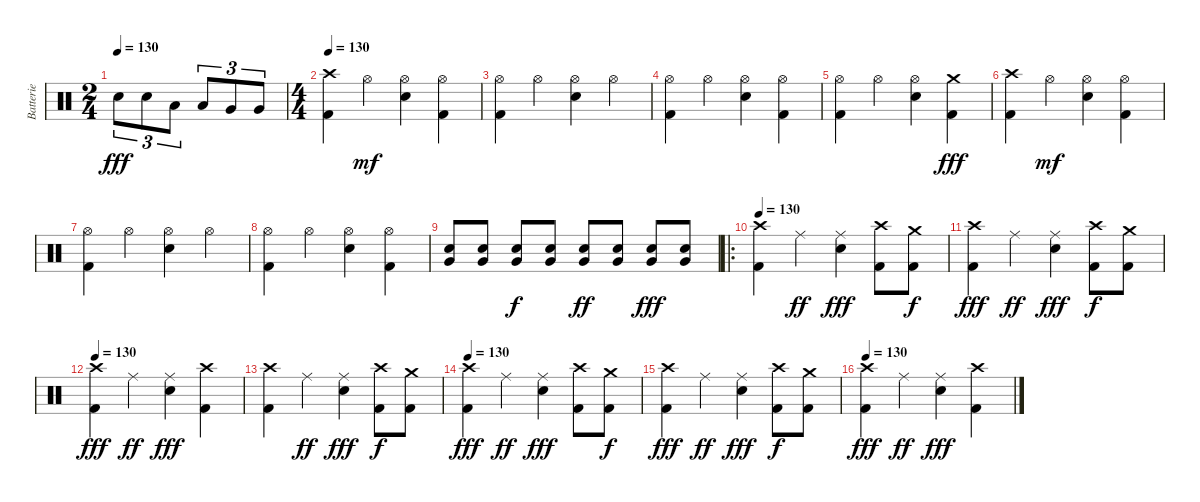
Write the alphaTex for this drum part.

\track ("Batterie" "Batterie") {instrument percussion}
\staff {score}
\articulation defaults
\ts (2 4)
\tempo 130
\clef neutral
\ks c "Snare (hit) 2".8{tu (3 2) dy fff} "Snare (hit) 2".8{tu (3 2)} "Low Tom (hit)".8{tu (3 2)} "Low Tom (hit)".8{tu (3 2)} "Very Low Tom (hit)".8{tu (3 2)} "Very Low Tom (hit)".8{tu (3 2)}
|
\ts (4 4)
\tempo 130
("Crash high (hit)" "Kick (hit) 2").4 "Hi-Hat (open)".4{dy mf} ("Snare (hit) 2" "Hi-Hat (open)").4 ("Kick (hit) 2" "Hi-Hat (open)").4 |
("Kick (hit) 2" "Hi-Hat (open)").4 "Hi-Hat (open)".4 ("Snare (hit) 2" "Hi-Hat (open)").4 "Hi-Hat (open)".4 |
("Kick (hit) 2" "Hi-Hat (open)").4 "Hi-Hat (open)".4 ("Snare (hit) 2" "Hi-Hat (open)").4 ("Kick (hit) 2" "Hi-Hat (open)").4 |
("Kick (hit) 2" "Hi-Hat (open)").4 "Hi-Hat (open)".4 ("Snare (hit) 2" "Hi-Hat (open)").4 ("Crash medium (hit)" "Kick (hit) 2").4{dy fff} |
("Crash high (hit)" "Kick (hit) 2").4 "Hi-Hat (open)".4{dy mf} ("Snare (hit) 2" "Hi-Hat (open)").4 ("Kick (hit) 2" "Hi-Hat (open)").4 |
("Kick (hit) 2" "Hi-Hat (open)").4 "Hi-Hat (open)".4 ("Snare (hit) 2" "Hi-Hat (open)").4 "Hi-Hat (open)".4 |
("Kick (hit) 2" "Hi-Hat (open)").4 "Hi-Hat (open)".4 ("Snare (hit) 2" "Hi-Hat (open)").4 ("Kick (hit) 2" "Hi-Hat (open)").4 |
("Snare (hit) 2" "Very Low Tom (hit)").8 ("Snare (hit) 2" "Very Low Tom (hit)").8 ("Snare (hit) 2" "Very Low Tom (hit)").8{dy f} ("Snare (hit) 2" "Very Low Tom (hit)").8 ("Snare (hit) 2" "Very Low Tom (hit)").8{dy ff} ("Snare (hit) 2" "Very Low Tom (hit)").8 ("Snare (hit) 2" "Very Low Tom (hit)").8{dy fff} ("Snare (hit) 2" "Very Low Tom (hit)").8 |
\ro
\tempo 130
("Crash high (hit)" "Kick (hit) 2").4 "Ride (middle)".4{dy ff} ("Ride (middle)" "Snare (hit) 2").4{dy fff} ("Crash high (hit)" "Kick (hit) 2").8 ("Crash medium (hit)" "Kick (hit) 2").8{dy f} |
("Crash high (hit)" "Kick (hit) 2").4{dy fff} "Ride (middle)".4{dy ff} ("Ride (middle)" "Snare (hit) 2").4{dy fff} ("Crash high (hit)" "Kick (hit) 2").8{dy f} ("Crash medium (hit)" "Kick (hit) 2").8 |
\tempo 130
("Crash high (hit)" "Kick (hit) 2").4{dy fff} "Ride (middle)".4{dy ff} ("Ride (middle)" "Snare (hit) 2").4{dy fff} ("Crash high (hit)" "Kick (hit) 2").4 |
("Crash high (hit)" "Kick (hit) 2").4 "Ride (middle)".4{dy ff} ("Ride (middle)" "Snare (hit) 2").4{dy fff} ("Crash high (hit)" "Kick (hit) 2").8{dy f} ("Crash medium (hit)" "Kick (hit) 2").8 |
\tempo 130
("Crash high (hit)" "Kick (hit) 2").4{dy fff} "Ride (middle)".4{dy ff} ("Ride (middle)" "Snare (hit) 2").4{dy fff} ("Crash high (hit)" "Kick (hit) 2").8 ("Crash medium (hit)" "Kick (hit) 2").8{dy f} |
("Crash high (hit)" "Kick (hit) 2").4{dy fff} "Ride (middle)".4{dy ff} ("Ride (middle)" "Snare (hit) 2").4{dy fff} ("Crash high (hit)" "Kick (hit) 2").8{dy f} ("Crash medium (hit)" "Kick (hit) 2").8 |
\tempo 130
("Crash high (hit)" "Kick (hit) 2").4{dy fff} "Ride (middle)".4{dy ff} ("Ride (middle)" "Snare (hit) 2").4{dy fff} ("Crash high (hit)" "Kick (hit) 2").4
